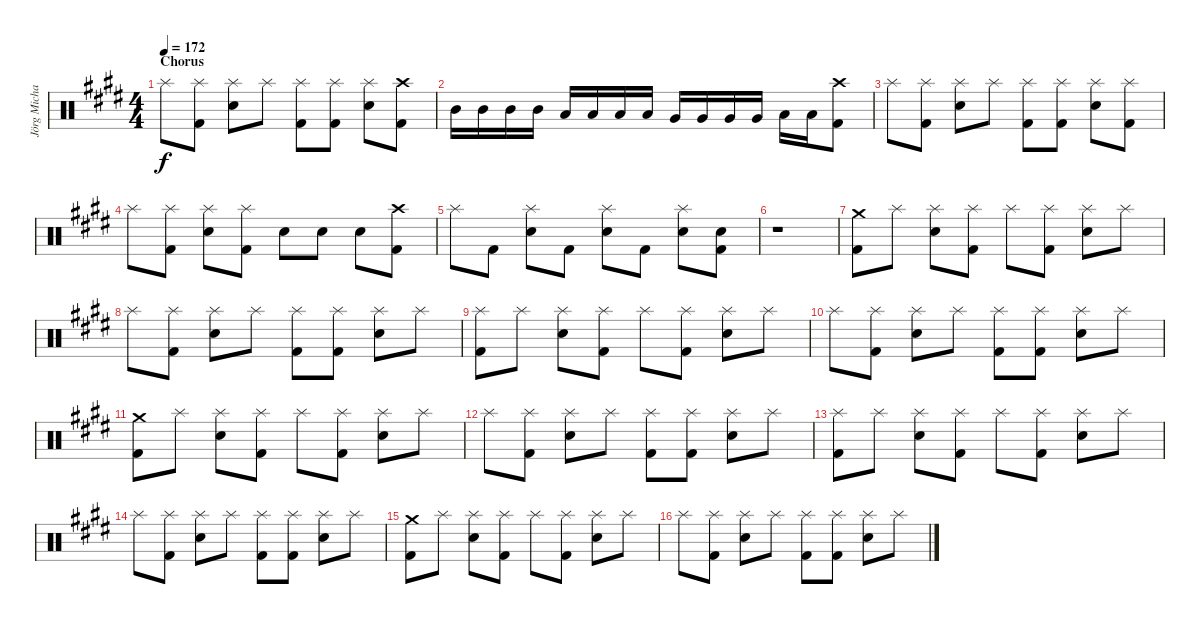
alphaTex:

\track ("Jörg Michael" "Jörg Micha") {instrument percussion}
\staff {score}
\articulation defaults
\ts (4 4)
\section ("" "Chorus")
\tempo 172
\clef neutral
\ks c#minor "Splash (hit)".8{dy f}
("Splash (hit)" "Kick (hit) 2").8 ("Splash (hit)" "Snare (hit) 2").8 "Splash (hit)".8 ("Splash (hit)" "Kick (hit) 2").8 ("Splash (hit)" "Kick (hit) 2").8 ("Splash (hit)" "Snare (hit) 2").8 ("Crash high (hit)" "Kick (hit) 2").8 |
"Mid Tom (hit)".16 "Mid Tom (hit)".16 "Mid Tom (hit)".16 "Mid Tom (hit)".16 "Low Tom (hit)".16 "Low Tom (hit)".16 "Low Tom (hit)".16 "Low Tom (hit)".16 "Very Low Tom (hit)".16 "Very Low Tom (hit)".16 "Very Low Tom (hit)".16 "Very Low Tom (hit)".16 "Low Floor Tom (hit)".16 "Low Floor Tom (hit)".16 ("Crash high (hit)" "Kick (hit) 2").8 |
"Splash (hit)".8 ("Splash (hit)" "Kick (hit) 2").8 ("Splash (hit)" "Snare (hit) 2").8 "Splash (hit)".8 ("Splash (hit)" "Kick (hit) 2").8 ("Splash (hit)" "Kick (hit) 2").8 ("Splash (hit)" "Snare (hit) 2").8 ("Splash (hit)" "Kick (hit) 2").8 |
"Splash (hit)".8 ("Splash (hit)" "Kick (hit) 2").8 ("Splash (hit)" "Snare (hit) 2").8 ("Splash (hit)" "Kick (hit) 2").8 "Snare (hit) 2".8 "Snare (hit) 2".8 "Snare (hit) 2".8 ("Crash high (hit)" "Kick (hit) 2").8 |
"Splash (hit)".8 "Kick (hit) 2".8 ("Splash (hit)" "Snare (hit) 2").8 "Kick (hit) 2".8 ("Splash (hit)" "Snare (hit) 2").8 "Kick (hit) 2".8 ("Splash (hit)" "Snare (hit) 2").8 ("Snare (hit) 2" "Kick (hit) 2").8 |
r.1 |
("Crash medium (hit)" "Kick (hit) 2").8 "Splash (hit)".8 ("Splash (hit)" "Snare (hit) 2").8 ("Splash (hit)" "Kick (hit) 2").8 "Splash (hit)".8 ("Splash (hit)" "Kick (hit) 2").8 ("Splash (hit)" "Snare (hit) 2").8 "Splash (hit)".8 |
"Splash (hit)".8 ("Splash (hit)" "Kick (hit) 2").8 ("Splash (hit)" "Snare (hit) 2").8 "Splash (hit)".8 ("Splash (hit)" "Kick (hit) 2").8 ("Splash (hit)" "Kick (hit) 2").8 ("Splash (hit)" "Snare (hit) 2").8 "Splash (hit)".8 |
("Splash (hit)" "Kick (hit) 2").8 "Splash (hit)".8 ("Splash (hit)" "Snare (hit) 2").8 ("Splash (hit)" "Kick (hit) 2").8 "Splash (hit)".8 ("Splash (hit)" "Kick (hit) 2").8 ("Splash (hit)" "Snare (hit) 2").8 "Splash (hit)".8 |
"Splash (hit)".8 ("Splash (hit)" "Kick (hit) 2").8 ("Splash (hit)" "Snare (hit) 2").8 "Splash (hit)".8 ("Splash (hit)" "Kick (hit) 2").8 ("Splash (hit)" "Kick (hit) 2").8 ("Splash (hit)" "Snare (hit) 2").8 "Splash (hit)".8 |
("Crash medium (hit)" "Kick (hit) 2").8 "Splash (hit)".8 ("Splash (hit)" "Snare (hit) 2").8 ("Splash (hit)" "Kick (hit) 2").8 "Splash (hit)".8 ("Splash (hit)" "Kick (hit) 2").8 ("Splash (hit)" "Snare (hit) 2").8 "Splash (hit)".8 |
"Splash (hit)".8 ("Splash (hit)" "Kick (hit) 2").8 ("Splash (hit)" "Snare (hit) 2").8 "Splash (hit)".8 ("Splash (hit)" "Kick (hit) 2").8 ("Splash (hit)" "Kick (hit) 2").8 ("Splash (hit)" "Snare (hit) 2").8 "Splash (hit)".8 |
("Splash (hit)" "Kick (hit) 2").8 "Splash (hit)".8 ("Splash (hit)" "Snare (hit) 2").8 ("Splash (hit)" "Kick (hit) 2").8 "Splash (hit)".8 ("Splash (hit)" "Kick (hit) 2").8 ("Splash (hit)" "Snare (hit) 2").8 "Splash (hit)".8 |
"Splash (hit)".8 ("Splash (hit)" "Kick (hit) 2").8 ("Splash (hit)" "Snare (hit) 2").8 "Splash (hit)".8 ("Splash (hit)" "Kick (hit) 2").8 ("Splash (hit)" "Kick (hit) 2").8 ("Splash (hit)" "Snare (hit) 2").8 "Splash (hit)".8 |
("Crash medium (hit)" "Kick (hit) 2").8 "Splash (hit)".8 ("Splash (hit)" "Snare (hit) 2").8 ("Splash (hit)" "Kick (hit) 2").8 "Splash (hit)".8 ("Splash (hit)" "Kick (hit) 2").8 ("Splash (hit)" "Snare (hit) 2").8 "Splash (hit)".8 |
"Splash (hit)".8 ("Splash (hit)" "Kick (hit) 2").8 ("Splash (hit)" "Snare (hit) 2").8 "Splash (hit)".8 ("Splash (hit)" "Kick (hit) 2").8 ("Splash (hit)" "Kick (hit) 2").8 ("Splash (hit)" "Snare (hit) 2").8 "Splash (hit)".8
